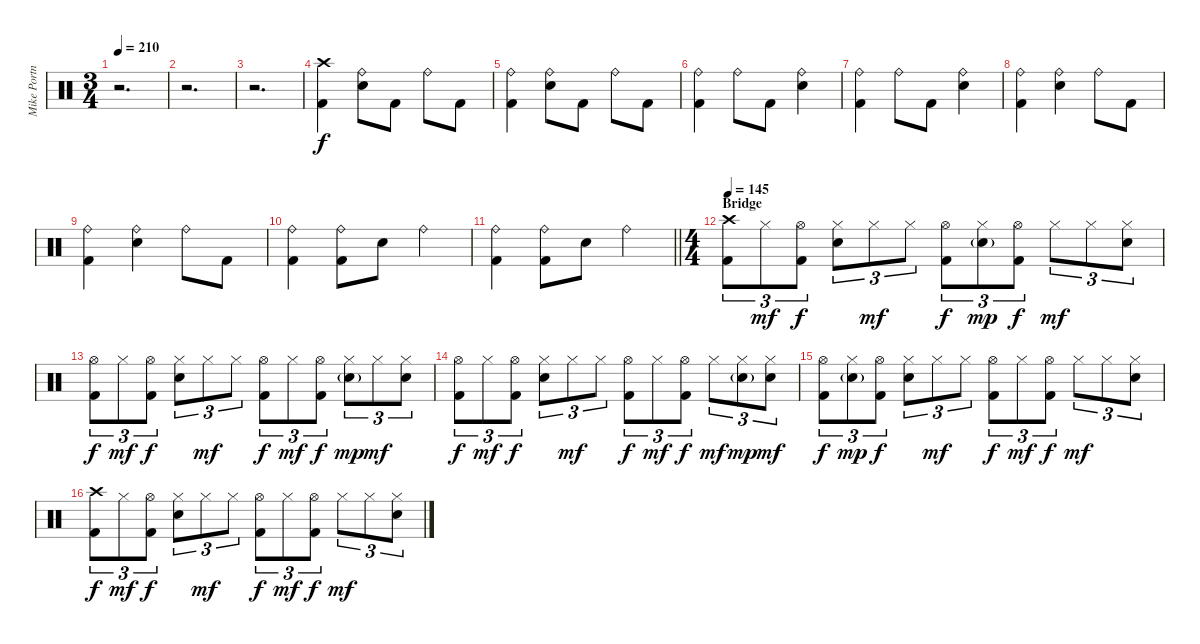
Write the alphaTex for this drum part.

\track ("Mike Portnoy" "Mike Portn") {instrument percussion}
\staff {score}
\articulation defaults
\ts (3 4)
\tempo 210
\clef neutral
\ks c
r.2{d dy f} |
r.2{d} |
r.2{d} |
("Crash high (hit)" "Kick (hit) 2").4 ("Ride (bell)" "Electric Snare (hit)").8 "Kick (hit) 2".8 "Ride (bell)".8 "Kick (hit) 2".8 |
("Ride (bell)" "Kick (hit) 2").4 ("Ride (bell)" "Electric Snare (hit)").8 "Kick (hit) 2".8 "Ride (bell)".8 "Kick (hit) 2".8 |
("Ride (bell)" "Kick (hit) 2").4 "Ride (bell)".8 "Kick (hit) 2".8 ("Ride (bell)" "Electric Snare (hit)").4 |
("Ride (bell)" "Kick (hit) 2").4 "Ride (bell)".8 "Kick (hit) 2".8 ("Ride (bell)" "Electric Snare (hit)").4 |
("Ride (bell)" "Kick (hit) 2").4 ("Ride (bell)" "Electric Snare (hit)").4 "Ride (bell)".8 "Kick (hit) 2".8 |
("Ride (bell)" "Kick (hit) 2").4 ("Ride (bell)" "Electric Snare (hit)").4 "Ride (bell)".8 "Kick (hit) 2".8 |
("Ride (bell)" "Kick (hit) 2").4 ("Ride (bell)" "Kick (hit) 2").8 "Electric Snare (hit)".8 "Ride (bell)".4 |
\barLineRight lightlight
("Ride (bell)" "Kick (hit) 2").4 ("Ride (bell)" "Kick (hit) 2").8 "Electric Snare (hit)".8 "Ride (bell)".4 |
\ts (4 4)
\section ("" "Bridge")
\tempo 145
("Crash high (hit)" "Kick (hit) 2").8{tu (3 2) volume 16} "Hi-Hat (closed)".8{tu (3 2) dy mf} ("Hi-Hat (open)" "Kick (hit) 2").8{tu (3 2) dy f} ("Hi-Hat (closed)" "Electric Snare (hit)").8{tu (3 2)} "Hi-Hat (closed)".8{tu (3 2) dy mf} "Hi-Hat (closed)".8{tu (3 2)} ("Hi-Hat (open)" "Kick (hit) 2").8{tu (3 2) dy f} ("Hi-Hat (closed)" "Electric Snare (hit)"{g}).8{tu (3 2) dy mp} ("Hi-Hat (open)" "Kick (hit) 2").8{tu (3 2) dy f} "Hi-Hat (closed)".8{tu (3 2) dy mf} "Hi-Hat (closed)".8{tu (3 2)} ("Hi-Hat (closed)" "Electric Snare (hit)").8{tu (3 2)} |
("Hi-Hat (open)" "Kick (hit) 2").8{tu (3 2) dy f} "Hi-Hat (closed)".8{tu (3 2) dy mf} ("Hi-Hat (open)" "Kick (hit) 2").8{tu (3 2) dy f} ("Hi-Hat (closed)" "Electric Snare (hit)").8{tu (3 2)} "Hi-Hat (closed)".8{tu (3 2) dy mf} "Hi-Hat (closed)".8{tu (3 2)} ("Hi-Hat (open)" "Kick (hit) 2").8{tu (3 2) dy f} "Hi-Hat (closed)".8{tu (3 2) dy mf} ("Hi-Hat (open)" "Kick (hit) 2").8{tu (3 2) dy f} ("Hi-Hat (closed)" "Electric Snare (hit)"{g}).8{tu (3 2) dy mp} "Hi-Hat (closed)".8{tu (3 2) dy mf} ("Hi-Hat (closed)" "Electric Snare (hit)").8{tu (3 2)} |
("Hi-Hat (open)" "Kick (hit) 2").8{tu (3 2) dy f} "Hi-Hat (closed)".8{tu (3 2) dy mf} ("Hi-Hat (open)" "Kick (hit) 2").8{tu (3 2) dy f} ("Hi-Hat (closed)" "Electric Snare (hit)").8{tu (3 2)} "Hi-Hat (closed)".8{tu (3 2) dy mf} "Hi-Hat (closed)".8{tu (3 2)} ("Hi-Hat (open)" "Kick (hit) 2").8{tu (3 2) dy f} "Hi-Hat (closed)".8{tu (3 2) dy mf} ("Hi-Hat (open)" "Kick (hit) 2").8{tu (3 2) dy f} "Hi-Hat (closed)".8{tu (3 2) dy mf} ("Hi-Hat (closed)" "Electric Snare (hit)"{g}).8{tu (3 2) dy mp} ("Hi-Hat (closed)" "Electric Snare (hit)").8{tu (3 2) dy mf} |
("Hi-Hat (open)" "Kick (hit) 2").8{tu (3 2) dy f} ("Hi-Hat (closed)" "Electric Snare (hit)"{g}).8{tu (3 2) dy mp} ("Hi-Hat (open)" "Kick (hit) 2").8{tu (3 2) dy f} ("Hi-Hat (closed)" "Electric Snare (hit)").8{tu (3 2)} "Hi-Hat (closed)".8{tu (3 2) dy mf} "Hi-Hat (closed)".8{tu (3 2)} ("Hi-Hat (open)" "Kick (hit) 2").8{tu (3 2) dy f} "Hi-Hat (closed)".8{tu (3 2) dy mf} ("Hi-Hat (open)" "Kick (hit) 2").8{tu (3 2) dy f} "Hi-Hat (closed)".8{tu (3 2) dy mf} "Hi-Hat (closed)".8{tu (3 2)} ("Hi-Hat (closed)" "Electric Snare (hit)").8{tu (3 2)} |
("Crash high (hit)" "Kick (hit) 2").8{tu (3 2) dy f} "Hi-Hat (closed)".8{tu (3 2) dy mf} ("Hi-Hat (open)" "Kick (hit) 2").8{tu (3 2) dy f} ("Hi-Hat (closed)" "Electric Snare (hit)").8{tu (3 2)} "Hi-Hat (closed)".8{tu (3 2) dy mf} "Hi-Hat (closed)".8{tu (3 2)} ("Hi-Hat (open)" "Kick (hit) 2").8{tu (3 2) dy f} "Hi-Hat (closed)".8{tu (3 2) dy mf} ("Hi-Hat (open)" "Kick (hit) 2").8{tu (3 2) dy f} "Hi-Hat (closed)".8{tu (3 2) dy mf} "Hi-Hat (closed)".8{tu (3 2)} ("Hi-Hat (closed)" "Electric Snare (hit)").8{tu (3 2)}
